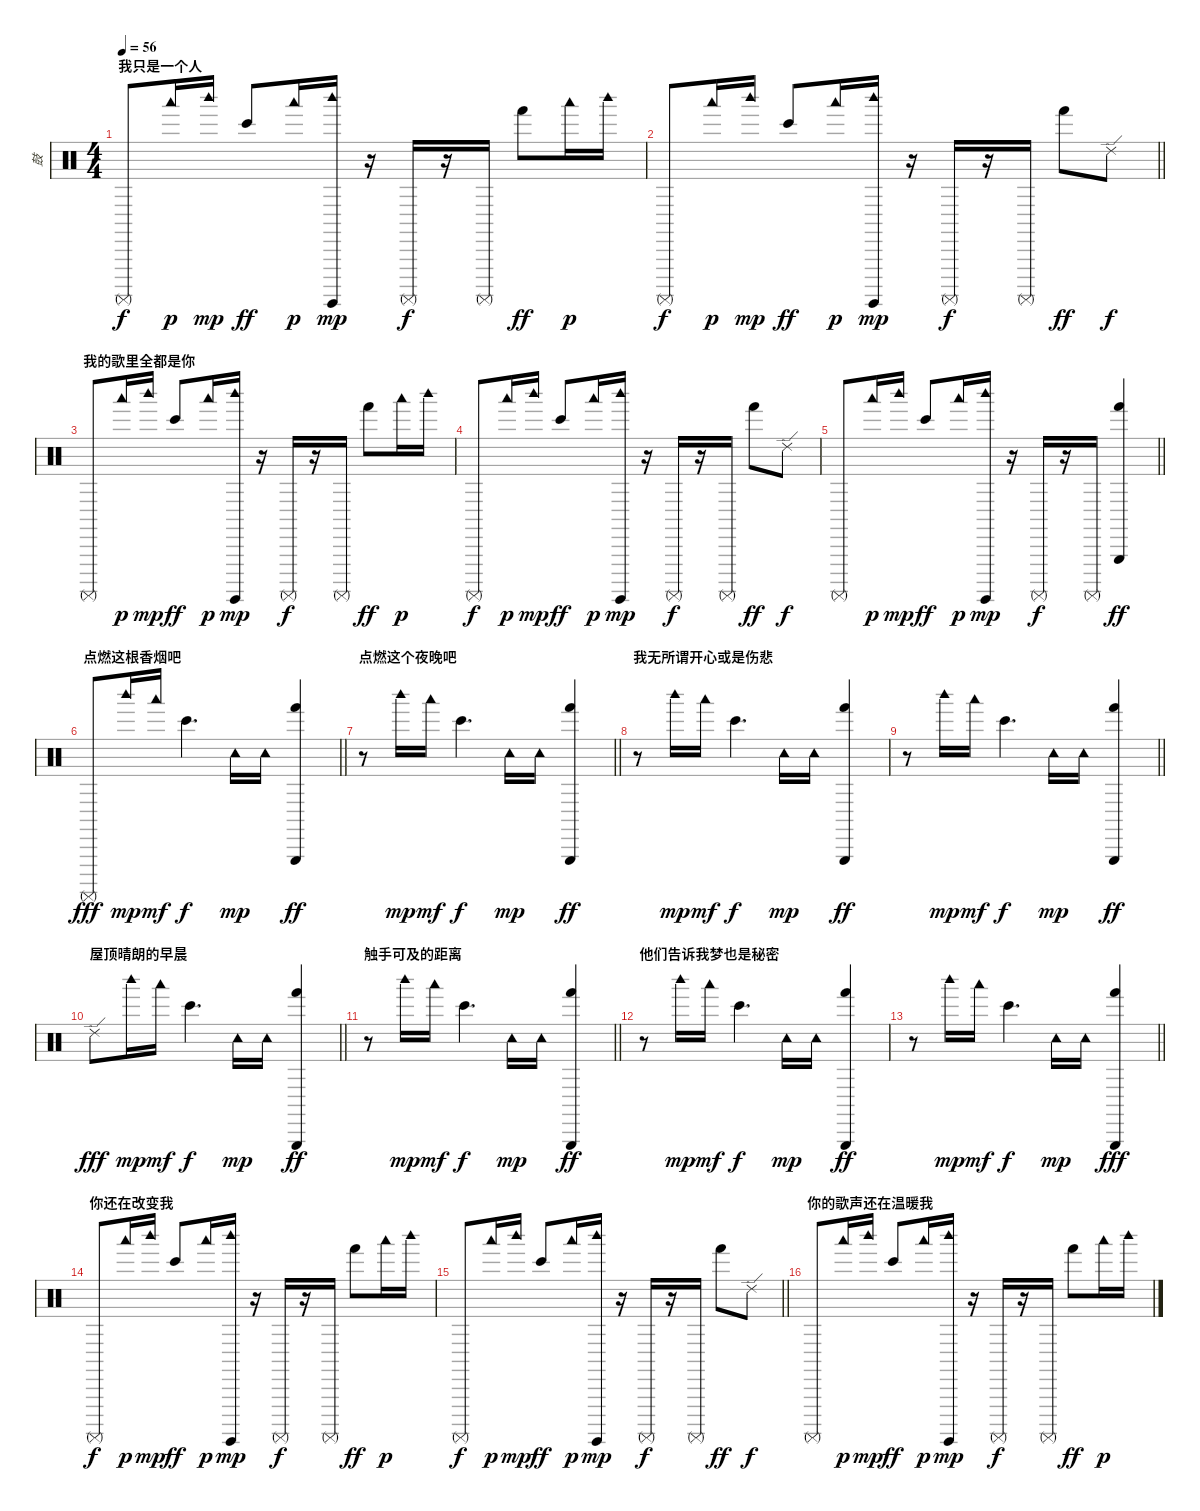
\track ("鼓" "鼓") {instrument percussion}
\staff {score}
\articulation defaults
\ts (4 4)
\section ("" "我只是一个人")
\tempo 56
\clef neutral
\ks c "Surdo (mute)".8{dy f} "Woodblock low (hit)".16{dy p} "Woodblock high (hit)".16{dy mp} "Bongo High (hit)".8{dy ff} "Woodblock low (hit)".16{dy p}
("Woodblock high (hit)" "Surdo (hit)").16{dy mp} r.16 "Surdo (mute)".16{dy f} r.16 "Surdo (mute)".16 "Hand (hit)".8{dy ff} "Woodblock low (hit)".16{dy p} "Woodblock high (hit)".16 |
\barLineRight lightlight "Surdo (mute)".8{dy f} "Woodblock low (hit)".16{dy p} "Woodblock high (hit)".16{dy mp} "Bongo High (hit)".8{dy ff} "Woodblock low (hit)".16{dy p}
("Woodblock high (hit)" "Surdo (hit)").16{dy mp} r.16 "Surdo (mute)".16{dy f} r.16 "Surdo (mute)".16 "Hand (hit)".8{dy ff} "Ride (edge) 2".8{dy f} |
\section ("" "我的歌里全都是你")
"Surdo (mute)".8 "Woodblock low (hit)".16{dy p} "Woodblock high (hit)".16{dy mp} "Bongo High (hit)".8{dy ff} "Woodblock low (hit)".16{dy p} ("Woodblock high (hit)" "Surdo (hit)").16{dy mp} r.16 "Surdo (mute)".16{dy f} r.16 "Surdo (mute)".16 "Hand (hit)".8{dy ff} "Woodblock low (hit)".16{dy p} "Woodblock high (hit)".16 |
"Surdo (mute)".8{dy f} "Woodblock low (hit)".16{dy p} "Woodblock high (hit)".16{dy mp} "Bongo High (hit)".8{dy ff} "Woodblock low (hit)".16{dy p} ("Woodblock high (hit)" "Surdo (hit)").16{dy mp} r.16 "Surdo (mute)".16{dy f} r.16 "Surdo (mute)".16 "Hand (hit)".8{dy ff} "Ride (edge) 2".8{dy f} |
\barLineRight lightlight "Surdo (mute)".8 "Woodblock low (hit)".16{dy p} "Woodblock high (hit)".16{dy mp} "Bongo High (hit)".8{dy ff} "Woodblock low (hit)".16{dy p}
("Woodblock high (hit)" "Surdo (hit)").16{dy mp} r.16 "Surdo (mute)".16{dy f} r.16 "Surdo (mute)".16 ("Triangle (hit)" "Hand (hit)").4{dy ff} |
\section ("" "点燃这根香烟吧")
\barLineRight lightlight "Surdo (mute)".8{dy fff volume 6} "Woodblock high (hit)".16{dy mp} "Woodblock low (hit)".16{dy mf} "Bongo High (hit)".4{d dy f} "Tambourine (hit)".16{dy mp} "Tambourine (hit)".16
("Triangle (hit)" "Hand (hit)").4{dy ff} |
\section ("" "点燃这个夜晚吧")
\barLineRight lightlight
r.8 "Woodblock high (hit)".16{dy mp} "Woodblock low (hit)".16{dy mf} "Bongo High (hit)".4{d dy f} "Tambourine (hit)".16{dy mp} "Tambourine (hit)".16 ("Triangle (hit)" "Hand (hit)").4{dy ff} |
\section ("" "我无所谓开心或是伤悲")
r.8 "Woodblock high (hit)".16{dy mp} "Woodblock low (hit)".16{dy mf} "Bongo High (hit)".4{d dy f} "Tambourine (hit)".16{dy mp} "Tambourine (hit)".16 ("Triangle (hit)" "Hand (hit)").4{dy ff} |
\barLineRight lightlight
r.8 "Woodblock high (hit)".16{dy mp} "Woodblock low (hit)".16{dy mf} "Bongo High (hit)".4{d dy f} "Tambourine (hit)".16{dy mp} "Tambourine (hit)".16 ("Triangle (hit)" "Hand (hit)").4{dy ff} |
\section ("" "屋顶晴朗的早晨")
\barLineRight lightlight "Ride (edge) 2".8{dy fff} "Woodblock high (hit)".16{dy mp} "Woodblock low (hit)".16{dy mf} "Bongo High (hit)".4{d dy f} "Tambourine (hit)".16{dy mp} "Tambourine (hit)".16
("Triangle (hit)" "Hand (hit)").4{dy ff} |
\section ("" "触手可及的距离")
\barLineRight lightlight
r.8 "Woodblock high (hit)".16{dy mp} "Woodblock low (hit)".16{dy mf} "Bongo High (hit)".4{d dy f} "Tambourine (hit)".16{dy mp} "Tambourine (hit)".16 ("Triangle (hit)" "Hand (hit)").4{dy ff} |
\section ("" "他们告诉我梦也是秘密")
r.8 "Woodblock high (hit)".16{dy mp} "Woodblock low (hit)".16{dy mf} "Bongo High (hit)".4{d dy f} "Tambourine (hit)".16{dy mp} "Tambourine (hit)".16 ("Triangle (hit)" "Hand (hit)").4{dy ff} |
\barLineRight lightlight
r.8 "Woodblock high (hit)".16{dy mp} "Woodblock low (hit)".16{dy mf} "Bongo High (hit)".4{d dy f} "Tambourine (hit)".16{dy mp} "Tambourine (hit)".16 ("Triangle (hit)" "Hand (hit)").4{dy fff} |
\section ("" "你还在改变我")
"Surdo (mute)".8{dy f volume 13} "Woodblock low (hit)".16{dy p} "Woodblock high (hit)".16{dy mp} "Bongo High (hit)".8{dy ff} "Woodblock low (hit)".16{dy p} ("Woodblock high (hit)" "Surdo (hit)").16{dy mp} r.16 "Surdo (mute)".16{dy f} r.16 "Surdo (mute)".16 "Hand (hit)".8{dy ff} "Woodblock low (hit)".16{dy p} "Woodblock high (hit)".16 |
\barLineRight lightlight "Surdo (mute)".8{dy f} "Woodblock low (hit)".16{dy p} "Woodblock high (hit)".16{dy mp} "Bongo High (hit)".8{dy ff} "Woodblock low (hit)".16{dy p}
("Woodblock high (hit)" "Surdo (hit)").16{dy mp} r.16 "Surdo (mute)".16{dy f} r.16 "Surdo (mute)".16 "Hand (hit)".8{dy ff} "Ride (edge) 2".8{dy f} |
\section ("" "你的歌声还在温暖我")
"Surdo (mute)".8 "Woodblock low (hit)".16{dy p} "Woodblock high (hit)".16{dy mp} "Bongo High (hit)".8{dy ff} "Woodblock low (hit)".16{dy p} ("Woodblock high (hit)" "Surdo (hit)").16{dy mp} r.16 "Surdo (mute)".16{dy f} r.16 "Surdo (mute)".16 "Hand (hit)".8{dy ff} "Woodblock low (hit)".16{dy p} "Woodblock high (hit)".16
